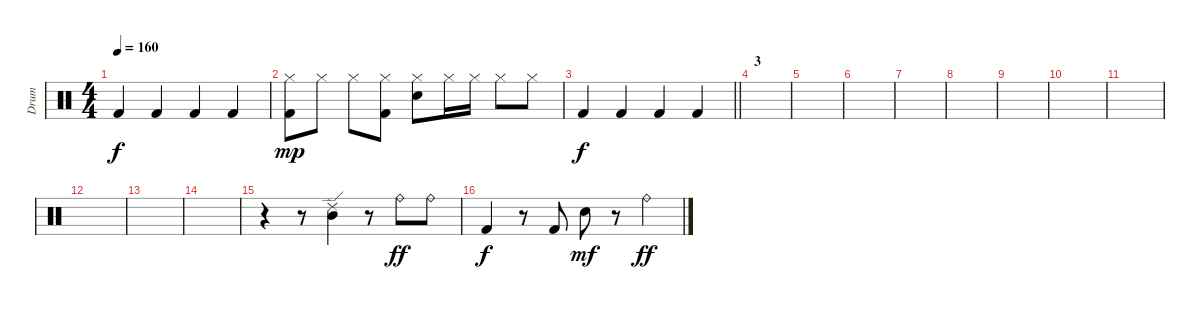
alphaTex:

\track ("Drum" "Drum") {instrument percussion}
\staff {score}
\articulation defaults
\ts (4 4)
\tempo 160
\clef neutral
\ks c "Kick (hit) 2".4{dy f} "Kick (hit) 2".4 "Kick (hit) 2".4 "Kick (hit) 2".4
|
("Hi-Hat (closed)" "Kick (hit) 2").8{dy mp} "Hi-Hat (closed)".8 "Hi-Hat (closed)".8 ("Hi-Hat (closed)" "Kick (hit) 2").8 ("Hi-Hat (closed)" "Hand Clap (hit)").8 "Hi-Hat (closed)".16 "Hi-Hat (closed)".16 "Hi-Hat (closed)".8 "Hi-Hat (closed)".8 |
\barLineRight lightlight "Kick (hit) 2".4{dy f} "Kick (hit) 2".4 "Kick (hit) 2".4 "Kick (hit) 2".4
|
\section ("" "3")
|
|
|
|
|
|
|
|
|
|
|
r.4 r.8 ("Ride (edge) 2" "Mid Tom (hit)").4{volume 12 balance 16} r.8 "Ride (bell)".8{dy ff} "Ride (bell)".8 |
"Kick (hit) 2".4{dy f balance 8} r.8 "Kick (hit) 2".8 "Electric Snare (hit)".8{dy mf} r.8 "Ride (bell)".4{dy ff}
